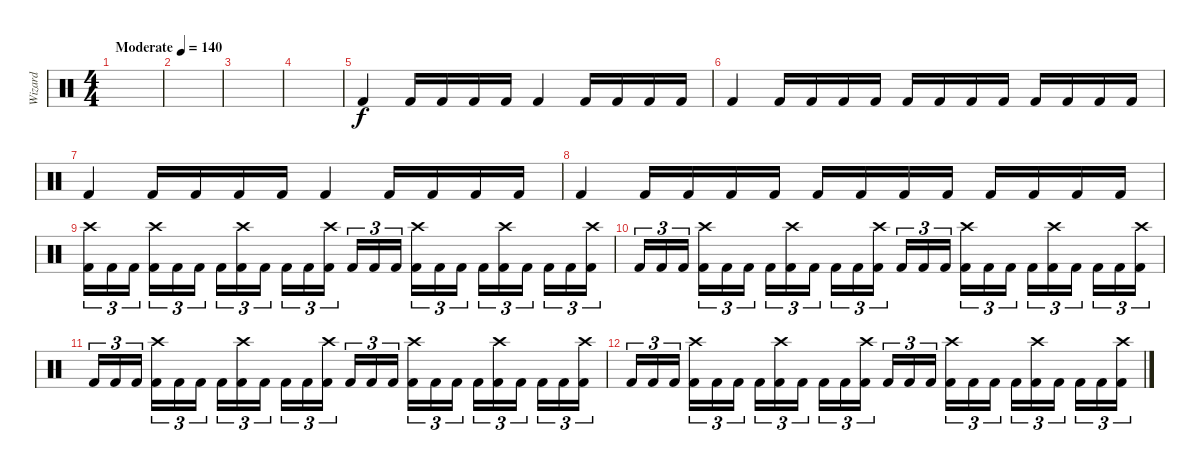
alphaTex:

\track ("Wizard" "Wizard") {instrument percussion}
\staff {score}
\articulation defaults
\ts (4 4)
\tempo (140 "Moderate")
\clef neutral
\ks c
|
|
|
|
"Kick (hit) 2".4 "Kick (hit) 2".16 "Kick (hit) 2".16 "Kick (hit) 2".16 "Kick (hit) 2".16 "Kick (hit) 2".4 "Kick (hit) 2".16 "Kick (hit) 2".16 "Kick (hit) 2".16 "Kick (hit) 2".16 |
"Kick (hit) 2".4 "Kick (hit) 2".16 "Kick (hit) 2".16 "Kick (hit) 2".16 "Kick (hit) 2".16 "Kick (hit) 2".16 "Kick (hit) 2".16 "Kick (hit) 2".16 "Kick (hit) 2".16 "Kick (hit) 2".16 "Kick (hit) 2".16 "Kick (hit) 2".16 "Kick (hit) 2".16 |
"Kick (hit) 2".4 "Kick (hit) 2".16 "Kick (hit) 2".16 "Kick (hit) 2".16 "Kick (hit) 2".16 "Kick (hit) 2".4 "Kick (hit) 2".16 "Kick (hit) 2".16 "Kick (hit) 2".16 "Kick (hit) 2".16 |
"Kick (hit) 2".4 "Kick (hit) 2".16 "Kick (hit) 2".16 "Kick (hit) 2".16 "Kick (hit) 2".16 "Kick (hit) 2".16 "Kick (hit) 2".16 "Kick (hit) 2".16 "Kick (hit) 2".16 "Kick (hit) 2".16 "Kick (hit) 2".16 "Kick (hit) 2".16 "Kick (hit) 2".16 |
("Crash high (hit)" "Kick (hit) 2").16{tu (3 2)} "Kick (hit) 2".16{tu (3 2)} "Kick (hit) 2".16{tu (3 2) beam splitsecondary} ("Crash high (hit)" "Kick (hit) 2").16{tu (3 2)} "Kick (hit) 2".16{tu (3 2)} "Kick (hit) 2".16{tu (3 2)} "Kick (hit) 2".16{tu (3 2)} ("Crash high (hit)" "Kick (hit) 2").16{tu (3 2)} "Kick (hit) 2".16{tu (3 2) beam splitsecondary} "Kick (hit) 2".16{tu (3 2)} "Kick (hit) 2".16{tu (3 2)} ("Crash high (hit)" "Kick (hit) 2").16{tu (3 2)} "Kick (hit) 2".16{tu (3 2)} "Kick (hit) 2".16{tu (3 2)} "Kick (hit) 2".16{tu (3 2) beam splitsecondary} ("Crash high (hit)" "Kick (hit) 2").16{tu (3 2)} "Kick (hit) 2".16{tu (3 2)} "Kick (hit) 2".16{tu (3 2)} "Kick (hit) 2".16{tu (3 2)} ("Crash high (hit)" "Kick (hit) 2").16{tu (3 2)} "Kick (hit) 2".16{tu (3 2) beam splitsecondary} "Kick (hit) 2".16{tu (3 2)} "Kick (hit) 2".16{tu (3 2)} ("Crash high (hit)" "Kick (hit) 2").16{tu (3 2)} |
"Kick (hit) 2".16{tu (3 2)} "Kick (hit) 2".16{tu (3 2)} "Kick (hit) 2".16{tu (3 2) beam splitsecondary} ("Crash high (hit)" "Kick (hit) 2").16{tu (3 2)} "Kick (hit) 2".16{tu (3 2)} "Kick (hit) 2".16{tu (3 2)} "Kick (hit) 2".16{tu (3 2)} ("Crash high (hit)" "Kick (hit) 2").16{tu (3 2)} "Kick (hit) 2".16{tu (3 2) beam splitsecondary} "Kick (hit) 2".16{tu (3 2)} "Kick (hit) 2".16{tu (3 2)} ("Crash high (hit)" "Kick (hit) 2").16{tu (3 2)} "Kick (hit) 2".16{tu (3 2)} "Kick (hit) 2".16{tu (3 2)} "Kick (hit) 2".16{tu (3 2) beam splitsecondary} ("Crash high (hit)" "Kick (hit) 2").16{tu (3 2)} "Kick (hit) 2".16{tu (3 2)} "Kick (hit) 2".16{tu (3 2)} "Kick (hit) 2".16{tu (3 2)} ("Crash high (hit)" "Kick (hit) 2").16{tu (3 2)} "Kick (hit) 2".16{tu (3 2) beam splitsecondary} "Kick (hit) 2".16{tu (3 2)} "Kick (hit) 2".16{tu (3 2)} ("Crash high (hit)" "Kick (hit) 2").16{tu (3 2)} |
"Kick (hit) 2".16{tu (3 2)} "Kick (hit) 2".16{tu (3 2)} "Kick (hit) 2".16{tu (3 2) beam splitsecondary} ("Crash high (hit)" "Kick (hit) 2").16{tu (3 2)} "Kick (hit) 2".16{tu (3 2)} "Kick (hit) 2".16{tu (3 2)} "Kick (hit) 2".16{tu (3 2)} ("Crash high (hit)" "Kick (hit) 2").16{tu (3 2)} "Kick (hit) 2".16{tu (3 2) beam splitsecondary} "Kick (hit) 2".16{tu (3 2)} "Kick (hit) 2".16{tu (3 2)} ("Crash high (hit)" "Kick (hit) 2").16{tu (3 2)} "Kick (hit) 2".16{tu (3 2)} "Kick (hit) 2".16{tu (3 2)} "Kick (hit) 2".16{tu (3 2) beam splitsecondary} ("Crash high (hit)" "Kick (hit) 2").16{tu (3 2)} "Kick (hit) 2".16{tu (3 2)} "Kick (hit) 2".16{tu (3 2)} "Kick (hit) 2".16{tu (3 2)} ("Crash high (hit)" "Kick (hit) 2").16{tu (3 2)} "Kick (hit) 2".16{tu (3 2) beam splitsecondary} "Kick (hit) 2".16{tu (3 2)} "Kick (hit) 2".16{tu (3 2)} ("Crash high (hit)" "Kick (hit) 2").16{tu (3 2)} |
"Kick (hit) 2".16{tu (3 2)} "Kick (hit) 2".16{tu (3 2)} "Kick (hit) 2".16{tu (3 2) beam splitsecondary} ("Crash high (hit)" "Kick (hit) 2").16{tu (3 2)} "Kick (hit) 2".16{tu (3 2)} "Kick (hit) 2".16{tu (3 2)} "Kick (hit) 2".16{tu (3 2)} ("Crash high (hit)" "Kick (hit) 2").16{tu (3 2)} "Kick (hit) 2".16{tu (3 2) beam splitsecondary} "Kick (hit) 2".16{tu (3 2)} "Kick (hit) 2".16{tu (3 2)} ("Crash high (hit)" "Kick (hit) 2").16{tu (3 2)} "Kick (hit) 2".16{tu (3 2)} "Kick (hit) 2".16{tu (3 2)} "Kick (hit) 2".16{tu (3 2) beam splitsecondary} ("Crash high (hit)" "Kick (hit) 2").16{tu (3 2)} "Kick (hit) 2".16{tu (3 2)} "Kick (hit) 2".16{tu (3 2)} "Kick (hit) 2".16{tu (3 2)} ("Crash high (hit)" "Kick (hit) 2").16{tu (3 2)} "Kick (hit) 2".16{tu (3 2) beam splitsecondary} "Kick (hit) 2".16{tu (3 2)} "Kick (hit) 2".16{tu (3 2)} ("Crash high (hit)" "Kick (hit) 2").16{tu (3 2)}
